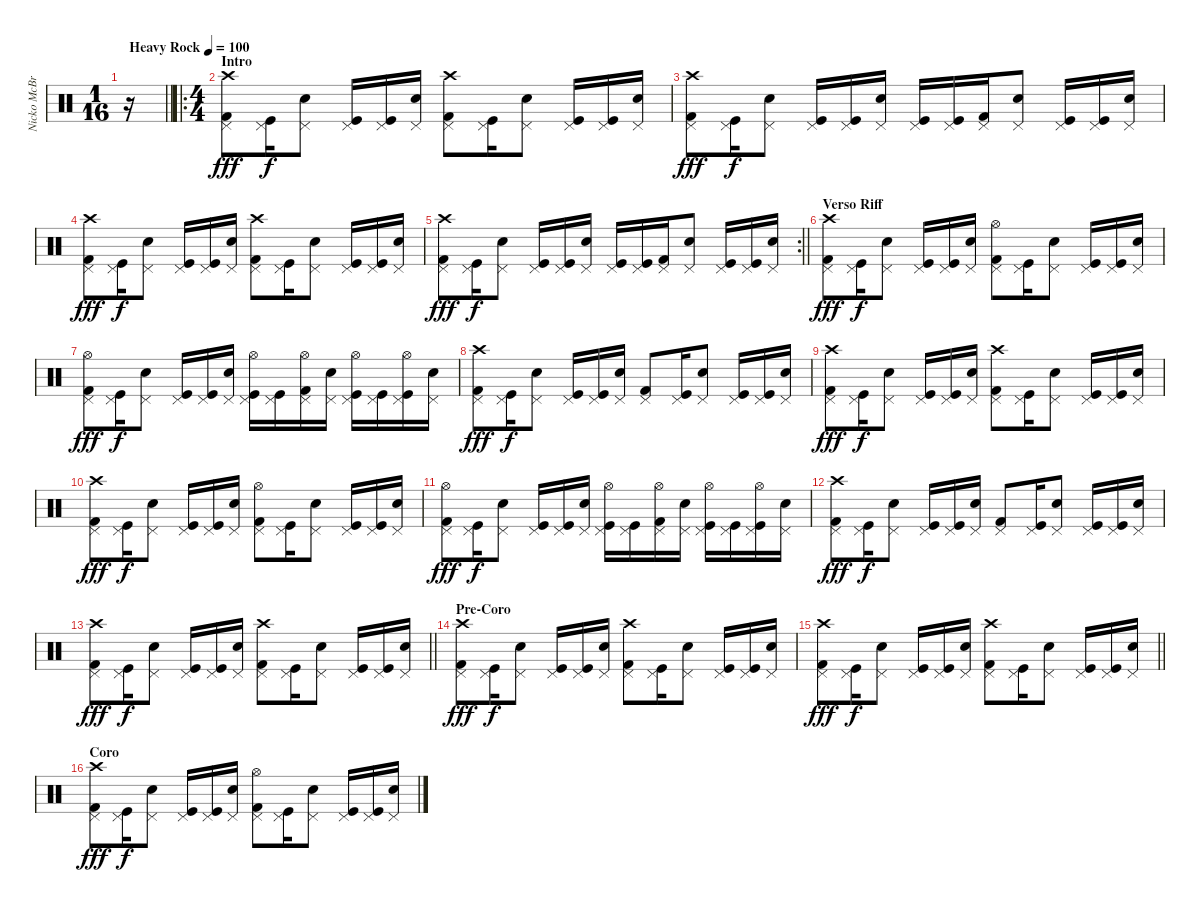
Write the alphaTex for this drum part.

\track ("Nicko McBrain" "Nicko McBr") {instrument percussion}
\staff {score}
\articulation defaults
\ts (1 16)
\tempo (100 "Heavy Rock")
\clef neutral
\barLineRight lightlight
\ks c
r.16{dy fff} |
\ro
\ts (4 4)
\section ("" "Intro")
("Kick (hit) 2" "Pedal Hi-Hat (hit)" "Crash high (hit)").8 ("Kick (hit)" "Pedal Hi-Hat (hit)").16{dy f} ("Snare (hit) 2" "Pedal Hi-Hat (hit)").8 ("Kick (hit)" "Pedal Hi-Hat (hit)").16 ("Kick (hit)" "Pedal Hi-Hat (hit)").16 ("Snare (hit) 2" "Pedal Hi-Hat (hit)").16 ("Kick (hit) 2" "Pedal Hi-Hat (hit)" "Crash high (hit)").8 ("Kick (hit)" "Pedal Hi-Hat (hit)").16 ("Snare (hit) 2" "Pedal Hi-Hat (hit)").8 ("Kick (hit)" "Pedal Hi-Hat (hit)").16 ("Kick (hit)" "Pedal Hi-Hat (hit)").16 ("Snare (hit) 2" "Pedal Hi-Hat (hit)").16 |
("Kick (hit) 2" "Pedal Hi-Hat (hit)" "Crash high (hit)").8{dy fff} ("Kick (hit)" "Pedal Hi-Hat (hit)").16{dy f} ("Snare (hit) 2" "Pedal Hi-Hat (hit)").8 ("Kick (hit)" "Pedal Hi-Hat (hit)").16 ("Kick (hit)" "Pedal Hi-Hat (hit)").16 ("Snare (hit) 2" "Pedal Hi-Hat (hit)").16 ("Kick (hit)" "Pedal Hi-Hat (hit)").16 ("Kick (hit)" "Pedal Hi-Hat (hit)").16 ("Kick (hit) 2" "Pedal Hi-Hat (hit)").16 ("Snare (hit) 2" "Pedal Hi-Hat (hit)").8 ("Kick (hit)" "Pedal Hi-Hat (hit)").16 ("Kick (hit)" "Pedal Hi-Hat (hit)").16 ("Snare (hit) 2" "Pedal Hi-Hat (hit)").16 |
("Kick (hit) 2" "Pedal Hi-Hat (hit)" "Crash high (hit)").8{dy fff} ("Kick (hit)" "Pedal Hi-Hat (hit)").16{dy f} ("Snare (hit) 2" "Pedal Hi-Hat (hit)").8 ("Kick (hit)" "Pedal Hi-Hat (hit)").16 ("Kick (hit)" "Pedal Hi-Hat (hit)").16 ("Snare (hit) 2" "Pedal Hi-Hat (hit)").16 ("Kick (hit) 2" "Pedal Hi-Hat (hit)" "Crash high (hit)").8 ("Kick (hit)" "Pedal Hi-Hat (hit)").16 ("Snare (hit) 2" "Pedal Hi-Hat (hit)").8 ("Kick (hit)" "Pedal Hi-Hat (hit)").16 ("Kick (hit)" "Pedal Hi-Hat (hit)").16 ("Snare (hit) 2" "Pedal Hi-Hat (hit)").16 |
\rc 2
\barLineRight lightlight
("Kick (hit) 2" "Pedal Hi-Hat (hit)" "Crash high (hit)").8{dy fff} ("Kick (hit)" "Pedal Hi-Hat (hit)").16{dy f} ("Snare (hit) 2" "Pedal Hi-Hat (hit)").8 ("Kick (hit)" "Pedal Hi-Hat (hit)").16 ("Kick (hit)" "Pedal Hi-Hat (hit)").16 ("Snare (hit) 2" "Pedal Hi-Hat (hit)").16 ("Kick (hit)" "Pedal Hi-Hat (hit)").16 ("Kick (hit)" "Pedal Hi-Hat (hit)").16 ("Kick (hit) 2" "Pedal Hi-Hat (hit)").16 ("Snare (hit) 2" "Pedal Hi-Hat (hit)").8 ("Kick (hit)" "Pedal Hi-Hat (hit)").16 ("Kick (hit)" "Pedal Hi-Hat (hit)").16 ("Snare (hit) 2" "Pedal Hi-Hat (hit)").16 |
\section ("" "Verso Riff")
("Kick (hit) 2" "Pedal Hi-Hat (hit)" "Crash high (hit)").8{dy fff} ("Kick (hit)" "Pedal Hi-Hat (hit)").16{dy f} ("Snare (hit) 2" "Pedal Hi-Hat (hit)").8 ("Kick (hit)" "Pedal Hi-Hat (hit)").16 ("Kick (hit)" "Pedal Hi-Hat (hit)").16 ("Snare (hit) 2" "Pedal Hi-Hat (hit)").16 ("Kick (hit) 2" "Pedal Hi-Hat (hit)" "Hi-Hat (open)").8 ("Kick (hit)" "Pedal Hi-Hat (hit)").16 ("Snare (hit) 2" "Pedal Hi-Hat (hit)").8 ("Kick (hit)" "Pedal Hi-Hat (hit)").16 ("Kick (hit)" "Pedal Hi-Hat (hit)").16 ("Snare (hit) 2" "Pedal Hi-Hat (hit)").16 |
("Kick (hit) 2" "Pedal Hi-Hat (hit)" "Hi-Hat (open)").8{dy fff} ("Kick (hit)" "Pedal Hi-Hat (hit)").16{dy f} ("Snare (hit) 2" "Pedal Hi-Hat (hit)").8 ("Kick (hit)" "Pedal Hi-Hat (hit)").16 ("Kick (hit)" "Pedal Hi-Hat (hit)").16 ("Snare (hit) 2" "Pedal Hi-Hat (hit)").16 ("Kick (hit)" "Pedal Hi-Hat (hit)" "Hi-Hat (open)").16 ("Kick (hit)" "Pedal Hi-Hat (hit)").16 ("Kick (hit) 2" "Pedal Hi-Hat (hit)" "Hi-Hat (open)").16 ("Snare (hit) 2" "Pedal Hi-Hat (hit)").16 ("Kick (hit)" "Pedal Hi-Hat (hit)" "Hi-Hat (open)").16 ("Kick (hit)" "Pedal Hi-Hat (hit)").16 ("Kick (hit)" "Pedal Hi-Hat (hit)" "Hi-Hat (open)").16 ("Snare (hit) 2" "Pedal Hi-Hat (hit)").16 |
("Kick (hit) 2" "Pedal Hi-Hat (hit)" "Crash high (hit)").8{dy fff} ("Kick (hit)" "Pedal Hi-Hat (hit)").16{dy f} ("Snare (hit) 2" "Pedal Hi-Hat (hit)").8 ("Kick (hit)" "Pedal Hi-Hat (hit)").16 ("Kick (hit)" "Pedal Hi-Hat (hit)").16 ("Snare (hit) 2" "Pedal Hi-Hat (hit)").16 ("Kick (hit) 2" "Pedal Hi-Hat (hit)").8 ("Kick (hit)" "Pedal Hi-Hat (hit)").16 ("Snare (hit) 2" "Pedal Hi-Hat (hit)").8 ("Kick (hit)" "Pedal Hi-Hat (hit)").16 ("Kick (hit)" "Pedal Hi-Hat (hit)").16 ("Snare (hit) 2" "Pedal Hi-Hat (hit)").16 |
("Kick (hit) 2" "Pedal Hi-Hat (hit)" "Crash high (hit)").8{dy fff} ("Kick (hit)" "Pedal Hi-Hat (hit)").16{dy f} ("Snare (hit) 2" "Pedal Hi-Hat (hit)").8 ("Kick (hit)" "Pedal Hi-Hat (hit)").16 ("Kick (hit)" "Pedal Hi-Hat (hit)").16 ("Snare (hit) 2" "Pedal Hi-Hat (hit)").16 ("Kick (hit) 2" "Pedal Hi-Hat (hit)" "Crash high (hit)").8 ("Kick (hit)" "Pedal Hi-Hat (hit)").16 ("Snare (hit) 2" "Pedal Hi-Hat (hit)").8 ("Kick (hit)" "Pedal Hi-Hat (hit)").16 ("Kick (hit)" "Pedal Hi-Hat (hit)").16 ("Snare (hit) 2" "Pedal Hi-Hat (hit)").16 |
("Kick (hit) 2" "Pedal Hi-Hat (hit)" "Crash high (hit)").8{dy fff} ("Kick (hit)" "Pedal Hi-Hat (hit)").16{dy f} ("Snare (hit) 2" "Pedal Hi-Hat (hit)").8 ("Kick (hit)" "Pedal Hi-Hat (hit)").16 ("Kick (hit)" "Pedal Hi-Hat (hit)").16 ("Snare (hit) 2" "Pedal Hi-Hat (hit)").16 ("Kick (hit) 2" "Pedal Hi-Hat (hit)" "Hi-Hat (open)").8 ("Kick (hit)" "Pedal Hi-Hat (hit)").16 ("Snare (hit) 2" "Pedal Hi-Hat (hit)").8 ("Kick (hit)" "Pedal Hi-Hat (hit)").16 ("Kick (hit)" "Pedal Hi-Hat (hit)").16 ("Snare (hit) 2" "Pedal Hi-Hat (hit)").16 |
("Kick (hit) 2" "Pedal Hi-Hat (hit)" "Hi-Hat (open)").8{dy fff} ("Kick (hit)" "Pedal Hi-Hat (hit)").16{dy f} ("Snare (hit) 2" "Pedal Hi-Hat (hit)").8 ("Kick (hit)" "Pedal Hi-Hat (hit)").16 ("Kick (hit)" "Pedal Hi-Hat (hit)").16 ("Snare (hit) 2" "Pedal Hi-Hat (hit)").16 ("Kick (hit)" "Pedal Hi-Hat (hit)" "Hi-Hat (open)").16 ("Kick (hit)" "Pedal Hi-Hat (hit)").16 ("Kick (hit) 2" "Pedal Hi-Hat (hit)" "Hi-Hat (open)").16 ("Snare (hit) 2" "Pedal Hi-Hat (hit)").16 ("Kick (hit)" "Pedal Hi-Hat (hit)" "Hi-Hat (open)").16 ("Kick (hit)" "Pedal Hi-Hat (hit)").16 ("Kick (hit)" "Pedal Hi-Hat (hit)" "Hi-Hat (open)").16 ("Snare (hit) 2" "Pedal Hi-Hat (hit)").16 |
("Kick (hit) 2" "Pedal Hi-Hat (hit)" "Crash high (hit)").8{dy fff} ("Kick (hit)" "Pedal Hi-Hat (hit)").16{dy f} ("Snare (hit) 2" "Pedal Hi-Hat (hit)").8 ("Kick (hit)" "Pedal Hi-Hat (hit)").16 ("Kick (hit)" "Pedal Hi-Hat (hit)").16 ("Snare (hit) 2" "Pedal Hi-Hat (hit)").16 ("Kick (hit) 2" "Pedal Hi-Hat (hit)").8 ("Kick (hit)" "Pedal Hi-Hat (hit)").16 ("Snare (hit) 2" "Pedal Hi-Hat (hit)").8 ("Kick (hit)" "Pedal Hi-Hat (hit)").16 ("Kick (hit)" "Pedal Hi-Hat (hit)").16 ("Snare (hit) 2" "Pedal Hi-Hat (hit)").16 |
\barLineRight lightlight
("Kick (hit) 2" "Pedal Hi-Hat (hit)" "Crash high (hit)").8{dy fff} ("Kick (hit)" "Pedal Hi-Hat (hit)").16{dy f} ("Snare (hit) 2" "Pedal Hi-Hat (hit)").8 ("Kick (hit)" "Pedal Hi-Hat (hit)").16 ("Kick (hit)" "Pedal Hi-Hat (hit)").16 ("Snare (hit) 2" "Pedal Hi-Hat (hit)").16 ("Kick (hit) 2" "Pedal Hi-Hat (hit)" "Crash high (hit)").8 ("Kick (hit)" "Pedal Hi-Hat (hit)").16 ("Snare (hit) 2" "Pedal Hi-Hat (hit)").8 ("Kick (hit)" "Pedal Hi-Hat (hit)").16 ("Kick (hit)" "Pedal Hi-Hat (hit)").16 ("Snare (hit) 2" "Pedal Hi-Hat (hit)").16 |
\section ("" "Pre-Coro")
("Kick (hit) 2" "Pedal Hi-Hat (hit)" "Crash high (hit)").8{dy fff} ("Kick (hit)" "Pedal Hi-Hat (hit)").16{dy f} ("Snare (hit) 2" "Pedal Hi-Hat (hit)").8 ("Kick (hit)" "Pedal Hi-Hat (hit)").16 ("Kick (hit)" "Pedal Hi-Hat (hit)").16 ("Snare (hit) 2" "Pedal Hi-Hat (hit)").16 ("Kick (hit) 2" "Pedal Hi-Hat (hit)" "Crash high (hit)").8 ("Kick (hit)" "Pedal Hi-Hat (hit)").16 ("Snare (hit) 2" "Pedal Hi-Hat (hit)").8 ("Kick (hit)" "Pedal Hi-Hat (hit)").16 ("Kick (hit)" "Pedal Hi-Hat (hit)").16 ("Snare (hit) 2" "Pedal Hi-Hat (hit)").16 |
\barLineRight lightlight
("Kick (hit) 2" "Pedal Hi-Hat (hit)" "Crash high (hit)").8{dy fff} ("Kick (hit)" "Pedal Hi-Hat (hit)").16{dy f} ("Snare (hit) 2" "Pedal Hi-Hat (hit)").8 ("Kick (hit)" "Pedal Hi-Hat (hit)").16 ("Kick (hit)" "Pedal Hi-Hat (hit)").16 ("Snare (hit) 2" "Pedal Hi-Hat (hit)").16 ("Kick (hit) 2" "Pedal Hi-Hat (hit)" "Crash high (hit)").8 ("Kick (hit)" "Pedal Hi-Hat (hit)").16 ("Snare (hit) 2" "Pedal Hi-Hat (hit)").8 ("Kick (hit)" "Pedal Hi-Hat (hit)").16 ("Kick (hit)" "Pedal Hi-Hat (hit)").16 ("Snare (hit) 2" "Pedal Hi-Hat (hit)").16 |
\section ("" "Coro")
("Kick (hit) 2" "Pedal Hi-Hat (hit)" "Crash high (hit)").8{dy fff} ("Kick (hit)" "Pedal Hi-Hat (hit)").16{dy f} ("Snare (hit) 2" "Pedal Hi-Hat (hit)").8 ("Kick (hit)" "Pedal Hi-Hat (hit)").16 ("Kick (hit)" "Pedal Hi-Hat (hit)").16 ("Snare (hit) 2" "Pedal Hi-Hat (hit)").16 ("Kick (hit) 2" "Pedal Hi-Hat (hit)" "Hi-Hat (open)").8 ("Kick (hit)" "Pedal Hi-Hat (hit)").16 ("Snare (hit) 2" "Pedal Hi-Hat (hit)").8 ("Kick (hit)" "Pedal Hi-Hat (hit)").16 ("Kick (hit)" "Pedal Hi-Hat (hit)").16 ("Snare (hit) 2" "Pedal Hi-Hat (hit)").16
